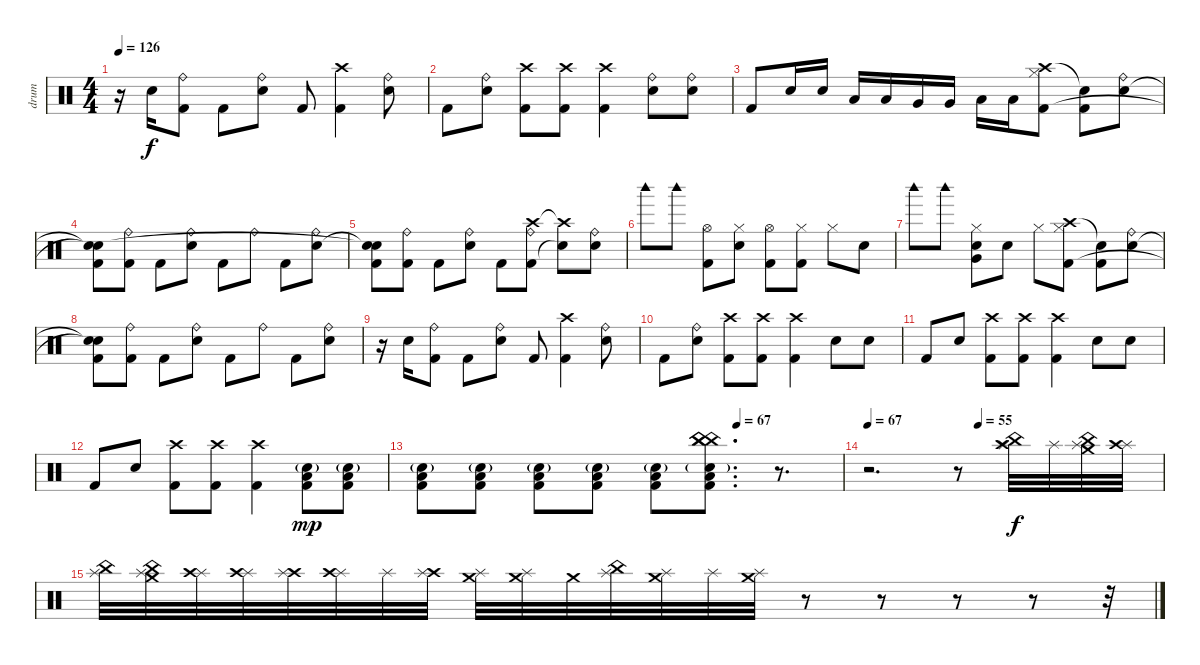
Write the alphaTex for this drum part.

\track ("drum" "drum") {instrument percussion}
\staff {score}
\articulation defaults
\ts (4 4)
\tempo 126
\clef neutral
\ks c
r.16{dy f} "Snare (hit) 2".16 ("Kick (hit) 2" "Ride (bell)").8 "Kick (hit) 2".8 ("Snare (hit) 2" "Ride (bell)").8 "Kick (hit) 2".8 ("Crash high (hit)" "Kick (hit) 2").4 ("Snare (hit) 2" "Ride (bell)").8 |
"Kick (hit) 2".8 ("Snare (hit) 2" "Ride (bell)").8 ("Crash high (hit)" "Kick (hit) 2").8 ("Crash high (hit)" "Kick (hit) 2").8 ("Crash high (hit)" "Kick (hit) 2").4 ("Snare (hit) 2" "Ride (bell)").8 ("Snare (hit) 2" "Ride (bell)").8 |
"Kick (hit) 2".8 "Snare (hit) 2".16 "Snare (hit) 2".16 "Low Tom (hit)".16 "Low Tom (hit)".16 "Very Low Tom (hit)".16 "Very Low Tom (hit)".16 "Low Floor Tom (hit)".16 "Low Floor Tom (hit)".16 ("Crash high (hit)" "Hi-Hat (closed)" "Kick (hit) 2").8 ("Snare (hit)"{t} "Kick (hit) 2").8 ("Snare (hit) 2" "Ride (bell)").8 |
("Snare (hit)"{t} "Kick (hit) 2" "Snare (hit)"{t}).8 ("Kick (hit) 2" "Ride (bell)").8 "Kick (hit) 2".8 ("Snare (hit) 2" "Ride (bell)").8 "Kick (hit) 2".8 "Ride (bell)".8 "Kick (hit) 2".8 ("Snare (hit) 2" "Ride (bell)").8 |
("Snare (hit)"{t} "Kick (hit) 2" "Snare (hit)"{t}).8 ("Kick (hit) 2" "Ride (bell)").8 "Kick (hit) 2".8 ("Snare (hit) 2" "Ride (bell)").8 "Kick (hit) 2".8 ("Crash high (hit)" "Kick (hit) 2" "Ride (bell)").8 ("Crash high (hit)"{t} "Snare (hit)"{t}).8 ("Snare (hit) 2" "Ride (bell)").8 |
"Woodblock high (hit)".8 "Woodblock high (hit)".8 ("Hi-Hat (open)" "Kick (hit) 2").8 ("Hi-Hat (closed)" "Snare (hit) 2").8 ("Hi-Hat (open)" "Kick (hit) 2").8 ("Hi-Hat (closed)" "Kick (hit) 2").8 "Hi-Hat (closed)".8 "Snare (hit) 2".8 |
"Woodblock high (hit)".8 "Woodblock high (hit)".8 ("Hi-Hat (closed)" "Snare (hit) 2" "Very Low Tom (hit)").8 "Snare (hit) 2".8 "Hi-Hat (closed)".8 ("Crash high (hit)" "Hi-Hat (closed)" "Kick (hit) 2").8 ("Snare (hit)"{t} "Kick (hit) 2").8 ("Snare (hit) 2" "Ride (bell)").8 |
("Snare (hit)"{t} "Kick (hit) 2" "Snare (hit)"{t}).8 ("Kick (hit) 2" "Ride (bell)").8 "Kick (hit) 2".8 ("Snare (hit) 2" "Ride (bell)").8 "Kick (hit) 2".8 "Ride (bell)".8 "Kick (hit) 2".8 ("Snare (hit) 2" "Ride (bell)").8 |
r.16 "Snare (hit) 2".16 ("Kick (hit) 2" "Ride (bell)").8 "Kick (hit) 2".8 ("Snare (hit) 2" "Ride (bell)").8 "Kick (hit) 2".8 ("Crash high (hit)" "Kick (hit) 2").4 ("Snare (hit) 2" "Ride (bell)").8 |
"Kick (hit) 2".8 ("Snare (hit) 2" "Ride (bell)").8 ("Crash high (hit)" "Kick (hit) 2").8 ("Crash high (hit)" "Kick (hit) 2").8 ("Crash high (hit)" "Kick (hit) 2").4 "Snare (hit) 2".8 "Snare (hit) 2".8 |
"Kick (hit) 2".8 "Snare (hit) 2".8 ("Crash high (hit)" "Kick (hit) 2").8 ("Crash high (hit)" "Kick (hit) 2").8 ("Crash high (hit)" "Kick (hit) 2").4 "Snare (hit) 2".8 "Snare (hit) 2".8 |
"Kick (hit) 2".8 "Snare (hit) 2".8 ("Crash high (hit)" "Kick (hit) 2").8 ("Crash high (hit)" "Kick (hit) 2").8 ("Crash high (hit)" "Kick (hit) 2").4 ("Low Floor Tom (hit)" "Snare (hit) 2"{g} "Kick (hit) 2").8{dy mp} ("Low Floor Tom (hit)" "Snare (hit) 2"{g} "Kick (hit) 2").8 |
\tempo (67 0.75)
("Low Floor Tom (hit)" "Snare (hit) 2"{g} "Kick (hit) 2").8 ("Low Floor Tom (hit)" "Snare (hit) 2"{g} "Kick (hit) 2").8 ("Low Floor Tom (hit)" "Snare (hit) 2"{g} "Kick (hit) 2").8 ("Low Floor Tom (hit)" "Snare (hit) 2"{g} "Kick (hit) 2").8 ("Low Floor Tom (hit)" "Snare (hit) 2"{g} "Kick (hit) 2").8 ("China (hit)" "China (hit)" "Low Floor Tom (hit)" "Snare (hit) 2"{g} "Kick (hit) 2" "China (hit)").8{d} r.8{d} |
\tempo 67
\tempo (55 0.375)
r.2{d} r.8 ("Crash high (hit)" "Splash (hit)" "China (hit)").32{dy f} "Splash (hit)".32 ("Crash medium (hit)" "Splash (hit)" "China (hit)").32 ("Splash (hit)" "Crash high (hit)").32 |
("Splash (hit)" "China (hit)").32 ("Crash medium (hit)" "Splash (hit)" "China (hit)").32 ("Splash (hit)" "Crash high (hit)").32 ("Splash (hit)" "Crash high (hit)").32 ("Crash high (hit)" "Splash (hit)").32 ("Splash (hit)" "Crash high (hit)").32 "Splash (hit)".32 ("Crash high (hit)" "Splash (hit)").32 ("Splash (hit)" "Crash medium (hit)").32 ("Splash (hit)" "Crash medium (hit)").32 "Crash medium (hit)".32 ("Splash (hit)" "China (hit)").32 ("Splash (hit)" "Crash medium (hit)").32 "Splash (hit)".32 ("Crash medium (hit)" "Splash (hit)").32 r.8 r.8 r.8 r.8 r.32
